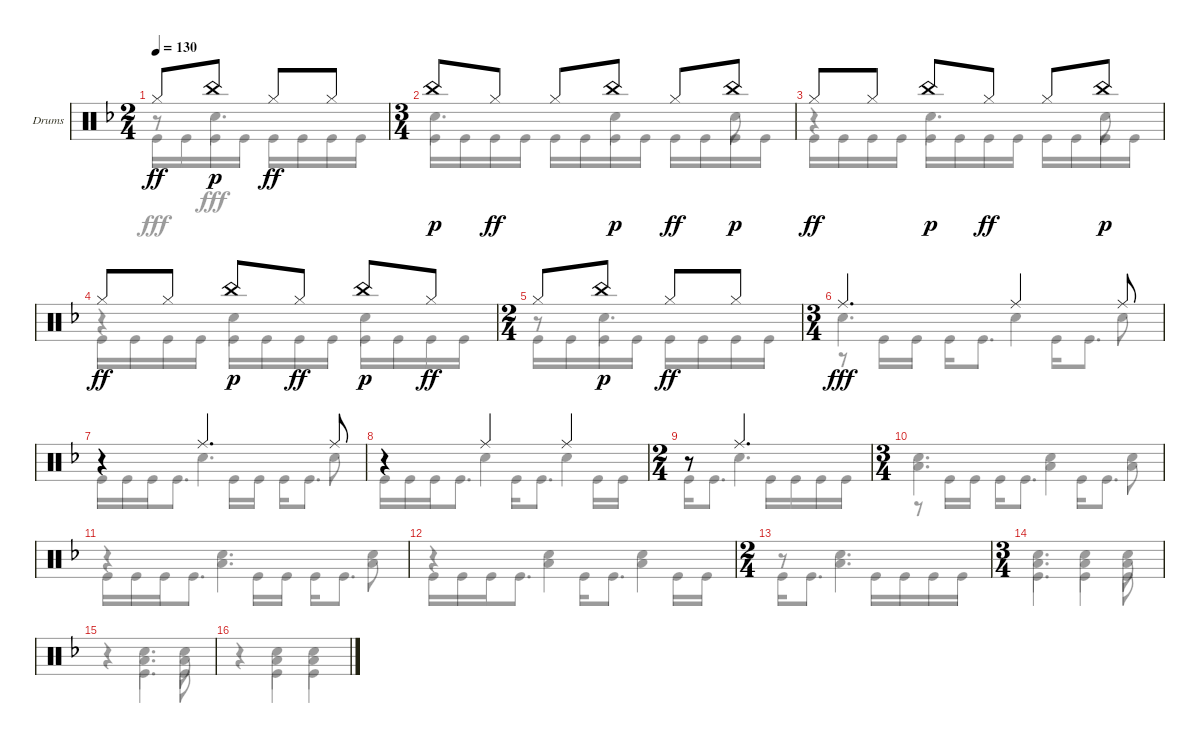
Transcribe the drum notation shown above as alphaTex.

\defaultSystemsLayout 4
\bracketExtendMode groupsimilarinstruments
\firstSystemTrackNameOrientation horizontal
\otherSystemsTrackNameOrientation horizontal
\track ("Drumkit" "Drums") {instrument percussion}
\staff {score}
\articulation defaults
\voice
\ts (2 4)
\tempo 130
\clef neutral
\ks f "Hi-Hat (closed)".8{dy ff} "China (hit)".8{dy p} "Hi-Hat (closed)".8{dy ff} "Hi-Hat (closed)".8
|
\ts (3 4)
"China (hit)".8{dy p} "Hi-Hat (closed)".8{dy ff} "Hi-Hat (closed)".8 "China (hit)".8{dy p} "Hi-Hat (closed)".8{dy ff} "China (hit)".8{dy p} |
"Hi-Hat (closed)".8{dy ff} "Hi-Hat (closed)".8 "China (hit)".8{dy p} "Hi-Hat (closed)".8{dy ff} "Hi-Hat (closed)".8 "China (hit)".8{dy p} |
"Hi-Hat (closed)".8{dy ff} "Hi-Hat (closed)".8 "China (hit)".8{dy p} "Hi-Hat (closed)".8{dy ff} "China (hit)".8{dy p} "Hi-Hat (closed)".8{dy ff} |
\ts (2 4)
"Hi-Hat (closed)".8 "China (hit)".8{dy p} "Hi-Hat (closed)".8{dy ff} "Hi-Hat (closed)".8 |
\ts (3 4)
"Ride (middle)".4{d dy fff} "Ride (middle)".4 "Ride (middle)".8 |
r.4 "Ride (middle)".4{d} "Ride (middle)".8 |
r.4 "Ride (middle)".4 "Ride (middle)".4 |
\ts (2 4)
r.8 "Ride (middle)".4{d} |
\ts (3 4)
|
|
|
\ts (2 4)
|
\ts (3 4)
|
|
\voice
\clef neutral
\ottava regular
\simile none
\ks f
r.8{dy fff} "Snare (hit) 2".4{d} |
"Snare (hit) 2".4{d} "Snare (hit) 2".4 "Snare (hit) 2".8 |
r.4 "Snare (hit) 2".4{d} "Snare (hit) 2".8 |
r.4 "Snare (hit) 2".4 "Snare (hit) 2".4 |
r.8 "Snare (hit) 2".4{d} |
"Snare (hit) 2".4{d} "Snare (hit) 2".4 "Snare (hit) 2".8 |
r.4 "Snare (hit) 2".4{d} "Snare (hit) 2".8 |
r.4 "Snare (hit) 2".4 "Snare (hit) 2".4 |
r.8 "Snare (hit) 2".4{d} |
("Snare (hit) 2" "Low Tom (hit)").4{d} ("Snare (hit) 2" "Low Tom (hit)").4 ("Snare (hit) 2" "Low Tom (hit)").8 |
r.4 ("Snare (hit) 2" "Low Tom (hit)").4{d} ("Snare (hit) 2" "Low Tom (hit)").8 |
r.4 ("Snare (hit) 2" "Low Tom (hit)").4 ("Snare (hit) 2" "Low Tom (hit)").4 |
r.8 ("Snare (hit) 2" "Low Tom (hit)").4{d} |
("Snare (hit) 2" "Low Tom (hit)").4{d} ("Snare (hit) 2" "Low Tom (hit)").4 ("Snare (hit) 2" "Low Tom (hit)").8 |
r.4 ("Snare (hit) 2" "Low Tom (hit)").4{d} ("Snare (hit) 2" "Low Tom (hit)").8 |
r.4 ("Snare (hit) 2" "Low Tom (hit)").4 ("Snare (hit) 2" "Low Tom (hit)").4
\voice
\clef neutral
\ottava regular
\simile none
\ks f "Kick (hit)".16{dy fff} "Kick (hit)".16 "Kick (hit)".16 "Kick (hit)".16 "Kick (hit)".16 "Kick (hit)".16 "Kick (hit)".16 "Kick (hit)".16
|
"Kick (hit)".16 "Kick (hit)".16 "Kick (hit)".16 "Kick (hit)".16 "Kick (hit)".16 "Kick (hit)".16 "Kick (hit)".16 "Kick (hit)".16 "Kick (hit)".16 "Kick (hit)".16 "Kick (hit)".16 "Kick (hit)".16 |
"Kick (hit)".16 "Kick (hit)".16 "Kick (hit)".16 "Kick (hit)".16 "Kick (hit)".16 "Kick (hit)".16 "Kick (hit)".16 "Kick (hit)".16 "Kick (hit)".16 "Kick (hit)".16 "Kick (hit)".16 "Kick (hit)".16 |
"Kick (hit)".16 "Kick (hit)".16 "Kick (hit)".16 "Kick (hit)".16 "Kick (hit)".16 "Kick (hit)".16 "Kick (hit)".16 "Kick (hit)".16 "Kick (hit)".16 "Kick (hit)".16 "Kick (hit)".16 "Kick (hit)".16 |
"Kick (hit)".16 "Kick (hit)".16 "Kick (hit)".16 "Kick (hit)".16 "Kick (hit)".16 "Kick (hit)".16 "Kick (hit)".16 "Kick (hit)".16 |
r.8 "Kick (hit)".16 "Kick (hit)".16 "Kick (hit)".16 "Kick (hit)".8{d} "Kick (hit)".16 "Kick (hit)".8{d} |
"Kick (hit)".16 "Kick (hit)".16 "Kick (hit)".16 "Kick (hit)".8{d} "Kick (hit)".16 "Kick (hit)".16 "Kick (hit)".16 "Kick (hit)".8{d} |
"Kick (hit)".16 "Kick (hit)".16 "Kick (hit)".16 "Kick (hit)".8{d} "Kick (hit)".16 "Kick (hit)".8{d} "Kick (hit)".16 "Kick (hit)".16 |
"Kick (hit)".16 "Kick (hit)".8{d} "Kick (hit)".16 "Kick (hit)".16 "Kick (hit)".16 "Kick (hit)".16 |
r.8 "Kick (hit)".16 "Kick (hit)".16 "Kick (hit)".16 "Kick (hit)".8{d} "Kick (hit)".16 "Kick (hit)".8{d} |
"Kick (hit)".16 "Kick (hit)".16 "Kick (hit)".16 "Kick (hit)".8{d} "Kick (hit)".16 "Kick (hit)".16 "Kick (hit)".16 "Kick (hit)".8{d} |
"Kick (hit)".16 "Kick (hit)".16 "Kick (hit)".16 "Kick (hit)".8{d} "Kick (hit)".16 "Kick (hit)".8{d} "Kick (hit)".16 "Kick (hit)".16 |
"Kick (hit)".16 "Kick (hit)".8{d} "Kick (hit)".16 "Kick (hit)".16 "Kick (hit)".16 "Kick (hit)".16 |
"Kick (hit)".4{d} "Kick (hit)".4 "Kick (hit)".8 |
r.4 "Kick (hit)".4{d} "Kick (hit)".8 |
r.4 "Kick (hit)".4 "Kick (hit)".4
